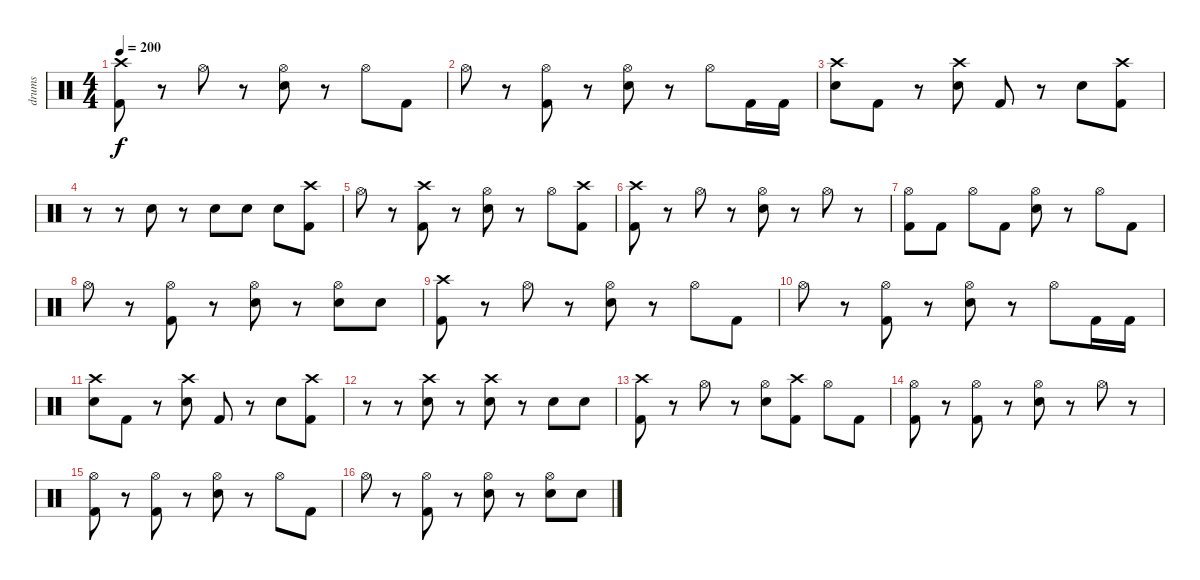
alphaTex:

\track ("drums" "drums") {instrument percussion}
\staff {score}
\articulation defaults
\ts (4 4)
\tempo 200
\clef neutral
\ks c
("Crash high (hit)" "Kick (hit) 2").8{dy f} r.8 "Hi-Hat (open)".8 r.8 ("Hi-Hat (open)" "Snare (hit) 2").8 r.8 "Hi-Hat (open)".8 "Kick (hit) 2".8 |
"Hi-Hat (open)".8 r.8 ("Hi-Hat (open)" "Kick (hit) 2").8 r.8 ("Hi-Hat (open)" "Snare (hit) 2").8 r.8 "Hi-Hat (open)".8 "Kick (hit) 2".16 "Kick (hit) 2".16 |
("Crash high (hit)" "Snare (hit) 2").8 "Kick (hit) 2".8 r.8 ("Crash high (hit)" "Snare (hit) 2").8 "Kick (hit) 2".8 r.8 "Snare (hit) 2".8 ("Crash high (hit)" "Kick (hit) 2").8 |
r.8 r.8 "Snare (hit) 2".8 r.8 "Snare (hit) 2".8 "Snare (hit) 2".8 "Snare (hit) 2".8 ("Crash high (hit)" "Kick (hit) 2").8 |
"Hi-Hat (open)".8 r.8 ("Crash high (hit)" "Kick (hit) 2").8 r.8 ("Hi-Hat (open)" "Snare (hit) 2").8 r.8 "Hi-Hat (open)".8 ("Crash high (hit)" "Kick (hit) 2").8 |
("Crash high (hit)" "Kick (hit) 2").8 r.8 "Hi-Hat (open)".8 r.8 ("Hi-Hat (open)" "Snare (hit) 2").8 r.8 "Hi-Hat (open)".8 r.8 |
("Hi-Hat (open)" "Kick (hit) 2").8 "Kick (hit) 2".8 "Hi-Hat (open)".8 "Kick (hit) 2".8 ("Hi-Hat (open)" "Snare (hit) 2").8 r.8 "Hi-Hat (open)".8 "Kick (hit) 2".8 |
"Hi-Hat (open)".8 r.8 ("Hi-Hat (open)" "Kick (hit) 2").8 r.8 ("Hi-Hat (open)" "Snare (hit) 2").8 r.8 ("Hi-Hat (open)" "Snare (hit) 2").8 "Snare (hit) 2".8 |
("Crash high (hit)" "Kick (hit) 2").8 r.8 "Hi-Hat (open)".8 r.8 ("Hi-Hat (open)" "Snare (hit) 2").8 r.8 "Hi-Hat (open)".8 "Kick (hit) 2".8 |
"Hi-Hat (open)".8 r.8 ("Hi-Hat (open)" "Kick (hit) 2").8 r.8 ("Hi-Hat (open)" "Snare (hit) 2").8 r.8 "Hi-Hat (open)".8 "Kick (hit) 2".16 "Kick (hit) 2".16 |
("Crash high (hit)" "Snare (hit) 2").8 "Kick (hit) 2".8 r.8 ("Crash high (hit)" "Snare (hit) 2").8 "Kick (hit) 2".8 r.8 "Snare (hit) 2".8 ("Crash high (hit)" "Kick (hit) 2").8 |
r.8 r.8 ("Crash high (hit)" "Snare (hit) 2").8 r.8 ("Crash high (hit)" "Snare (hit) 2").8 r.8 "Snare (hit) 2".8 "Snare (hit) 2".8 |
("Crash high (hit)" "Kick (hit) 2").8 r.8 "Hi-Hat (open)".8 r.8 ("Hi-Hat (open)" "Snare (hit) 2").8 ("Crash high (hit)" "Kick (hit) 2").8 "Hi-Hat (open)".8 "Kick (hit) 2".8 |
("Hi-Hat (open)" "Kick (hit) 2").8 r.8 ("Hi-Hat (open)" "Kick (hit) 2").8 r.8 ("Hi-Hat (open)" "Snare (hit) 2").8 r.8 "Hi-Hat (open)".8 r.8 |
("Hi-Hat (open)" "Kick (hit) 2").8 r.8 ("Hi-Hat (open)" "Kick (hit) 2").8 r.8 ("Hi-Hat (open)" "Snare (hit) 2").8 r.8 "Hi-Hat (open)".8 "Kick (hit) 2".8 |
"Hi-Hat (open)".8 r.8 ("Hi-Hat (open)" "Kick (hit) 2").8 r.8 ("Hi-Hat (open)" "Snare (hit) 2").8 r.8 ("Hi-Hat (open)" "Snare (hit) 2").8 "Snare (hit) 2".8
